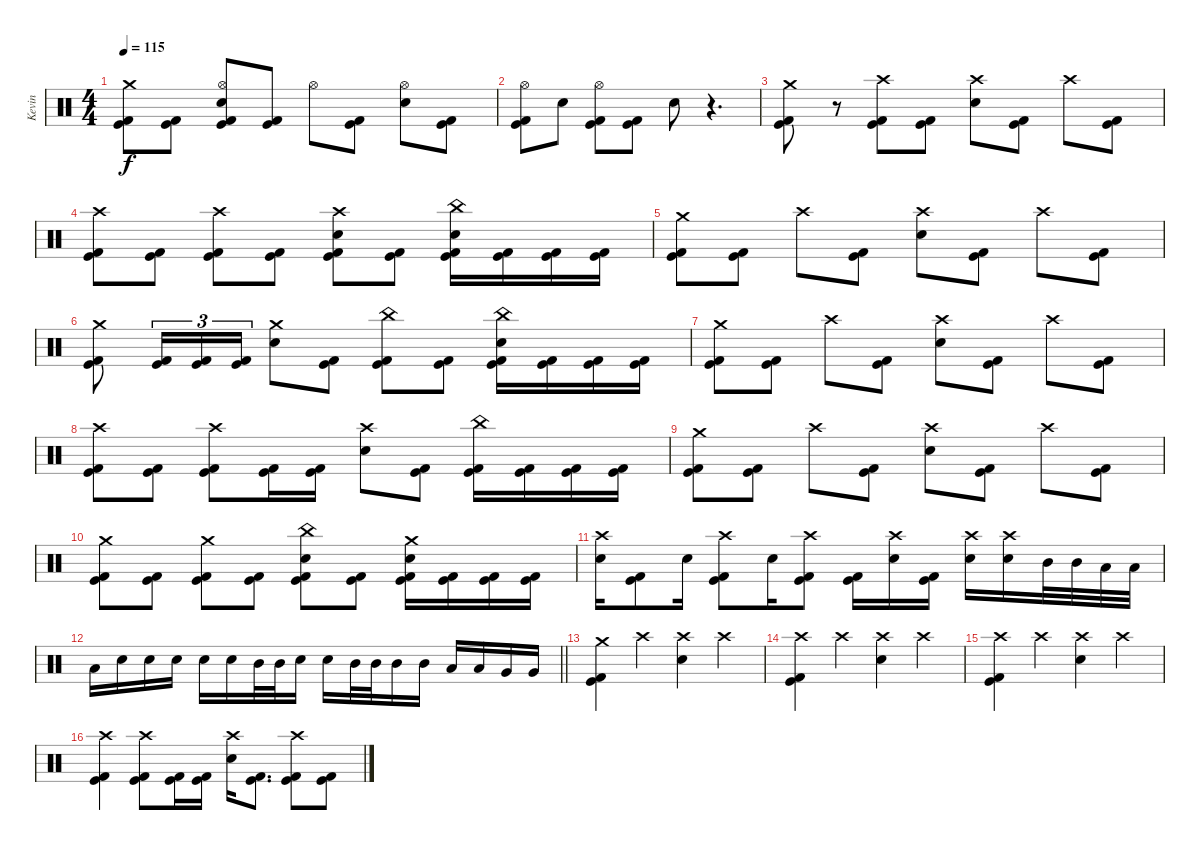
\track ("Kevin" "Kevin") {instrument percussion}
\staff {score}
\articulation defaults
\ts (4 4)
\tempo 115
\clef neutral
\ks c
("Crash medium (hit)" "Kick (hit)" "Kick (hit) 2").8{dy f} ("Kick (hit)" "Kick (hit) 2").8 ("Hi-Hat (open)" "Electric Snare (hit)" "Kick (hit)" "Kick (hit) 2").8 ("Kick (hit)" "Kick (hit) 2").8 "Hi-Hat (open)".8 ("Kick (hit)" "Kick (hit) 2").8 ("Hi-Hat (open)" "Electric Snare (hit)").8 ("Kick (hit)" "Kick (hit) 2").8 |
("Hi-Hat (open)" "Kick (hit)" "Kick (hit) 2").8 "Electric Snare (hit)".8 ("Hi-Hat (open)" "Kick (hit)" "Kick (hit) 2").8 ("Kick (hit)" "Kick (hit) 2").8 "Electric Snare (hit)".8 r.4{d} |
("Crash medium (hit)" "Kick (hit)" "Kick (hit) 2").8 r.8 ("Crash high (hit)" "Kick (hit)" "Kick (hit) 2").8 ("Kick (hit)" "Kick (hit) 2").8 ("Crash high (hit)" "Electric Snare (hit)").8 ("Kick (hit)" "Kick (hit) 2").8 "Crash high (hit)".8 ("Kick (hit)" "Kick (hit) 2").8 |
("Crash high (hit)" "Kick (hit)" "Kick (hit) 2").8 ("Kick (hit)" "Kick (hit) 2").8 ("Crash high (hit)" "Kick (hit)" "Kick (hit) 2").8 ("Kick (hit)" "Kick (hit) 2").8 ("Crash high (hit)" "Electric Snare (hit)" "Kick (hit)" "Kick (hit) 2").8 ("Kick (hit)" "Kick (hit) 2").8 ("China (hit)" "Electric Snare (hit)" "Kick (hit)" "Kick (hit) 2").16 ("Kick (hit)" "Kick (hit) 2").16 ("Kick (hit)" "Kick (hit) 2").16 ("Kick (hit)" "Kick (hit) 2").16 |
("Crash medium (hit)" "Kick (hit)" "Kick (hit) 2").8 ("Kick (hit)" "Kick (hit) 2").8 "Crash high (hit)".8 ("Kick (hit)" "Kick (hit) 2").8 ("Crash high (hit)" "Electric Snare (hit)").8 ("Kick (hit)" "Kick (hit) 2").8 "Crash high (hit)".8 ("Kick (hit)" "Kick (hit) 2").8 |
("Crash medium (hit)" "Kick (hit)" "Kick (hit) 2").8 ("Kick (hit)" "Kick (hit) 2").16{tu (3 2)} ("Kick (hit)" "Kick (hit) 2").16{tu (3 2)} ("Kick (hit)" "Kick (hit) 2").16{tu (3 2)} ("Crash medium (hit)" "Electric Snare (hit)").8 ("Kick (hit)" "Kick (hit) 2").8 ("China (hit)" "Kick (hit)" "Kick (hit) 2").8 ("Kick (hit)" "Kick (hit) 2").8 ("China (hit)" "Electric Snare (hit)" "Kick (hit)" "Kick (hit) 2").16 ("Kick (hit)" "Kick (hit) 2").16 ("Kick (hit)" "Kick (hit) 2").16 ("Kick (hit)" "Kick (hit) 2").16 |
("Crash medium (hit)" "Kick (hit)" "Kick (hit) 2").8 ("Kick (hit)" "Kick (hit) 2").8 "Crash high (hit)".8 ("Kick (hit)" "Kick (hit) 2").8 ("Crash high (hit)" "Electric Snare (hit)").8 ("Kick (hit)" "Kick (hit) 2").8 "Crash high (hit)".8 ("Kick (hit)" "Kick (hit) 2").8 |
("Crash high (hit)" "Kick (hit)" "Kick (hit) 2").8 ("Kick (hit)" "Kick (hit) 2").8 ("Crash high (hit)" "Kick (hit)" "Kick (hit) 2").8 ("Kick (hit)" "Kick (hit) 2").16 ("Kick (hit)" "Kick (hit) 2").16 ("Crash high (hit)" "Electric Snare (hit)").8 ("Kick (hit)" "Kick (hit) 2").8 ("China (hit)" "Kick (hit)" "Kick (hit) 2").16 ("Kick (hit)" "Kick (hit) 2").16 ("Kick (hit)" "Kick (hit) 2").16 ("Kick (hit)" "Kick (hit) 2").16 |
("Crash medium (hit)" "Kick (hit)" "Kick (hit) 2").8 ("Kick (hit)" "Kick (hit) 2").8 "Crash high (hit)".8 ("Kick (hit)" "Kick (hit) 2").8 ("Crash high (hit)" "Electric Snare (hit)").8 ("Kick (hit)" "Kick (hit) 2").8 "Crash high (hit)".8 ("Kick (hit)" "Kick (hit) 2").8 |
("Crash medium (hit)" "Kick (hit)" "Kick (hit) 2").8 ("Kick (hit)" "Kick (hit) 2").8 ("Crash medium (hit)" "Kick (hit)" "Kick (hit) 2").8 ("Kick (hit)" "Kick (hit) 2").8 ("China (hit)" "Electric Snare (hit)" "Kick (hit)" "Kick (hit) 2").8 ("Kick (hit)" "Kick (hit) 2").8 ("Crash medium (hit)" "Electric Snare (hit)" "Kick (hit)" "Kick (hit) 2").16 ("Kick (hit)" "Kick (hit) 2").16 ("Kick (hit)" "Kick (hit) 2").16 ("Kick (hit)" "Kick (hit) 2").16 |
("Crash high (hit)" "Electric Snare (hit)").16 ("Kick (hit)" "Kick (hit) 2").8 "Electric Snare (hit)".16 ("Crash high (hit)" "Kick (hit)" "Kick (hit) 2").8 "Electric Snare (hit)".16 ("Crash high (hit)" "Kick (hit)" "Kick (hit) 2").8 ("Kick (hit)" "Kick (hit) 2").16 ("Crash high (hit)" "Electric Snare (hit)").16 ("Kick (hit)" "Kick (hit) 2").16 ("Crash high (hit)" "Electric Snare (hit)").16 ("Crash high (hit)" "Electric Snare (hit)").16 "Mid Tom (hit)".32 "Mid Tom (hit)".32 "Low Tom (hit)".32 "Low Tom (hit)".32 |
\barLineRight lightlight "Low Tom (hit)".16 "Electric Snare (hit)".16 "Electric Snare (hit)".16 "Electric Snare (hit)".16 "Electric Snare (hit)".16 "Electric Snare (hit)".16 "Mid Tom (hit)".32 "Mid Tom (hit)".32 "Electric Snare (hit)".16 "Electric Snare (hit)".16 "Mid Tom (hit)".32 "Mid Tom (hit)".32 "Mid Tom (hit)".16 "Mid Tom (hit)".16 "Low Tom (hit)".16 "Low Tom (hit)".16 "Very Low Tom (hit)".16 "Very Low Tom (hit)".16
|
\section ("" "")
("Crash medium (hit)" "Kick (hit)" "Kick (hit) 2").4 "Crash high (hit)".4 ("Crash high (hit)" "Electric Snare (hit)").4 "Crash high (hit)".4 |
("Crash high (hit)" "Kick (hit)" "Kick (hit) 2").4 "Crash high (hit)".4 ("Crash high (hit)" "Electric Snare (hit)").4 "Crash high (hit)".4 |
("Crash high (hit)" "Kick (hit)" "Kick (hit) 2").4 "Crash high (hit)".4 ("Crash high (hit)" "Electric Snare (hit)").4 "Crash high (hit)".4 |
("Crash high (hit)" "Kick (hit)" "Kick (hit) 2").4 ("Crash high (hit)" "Kick (hit)" "Kick (hit) 2").8 ("Kick (hit)" "Kick (hit) 2").16 ("Kick (hit)" "Kick (hit) 2").16 ("Crash high (hit)" "Electric Snare (hit)").16 ("Kick (hit) 2" "Kick (hit)").8{d} ("Crash high (hit)" "Kick (hit)" "Kick (hit) 2").8 ("Kick (hit)" "Kick (hit) 2").8
